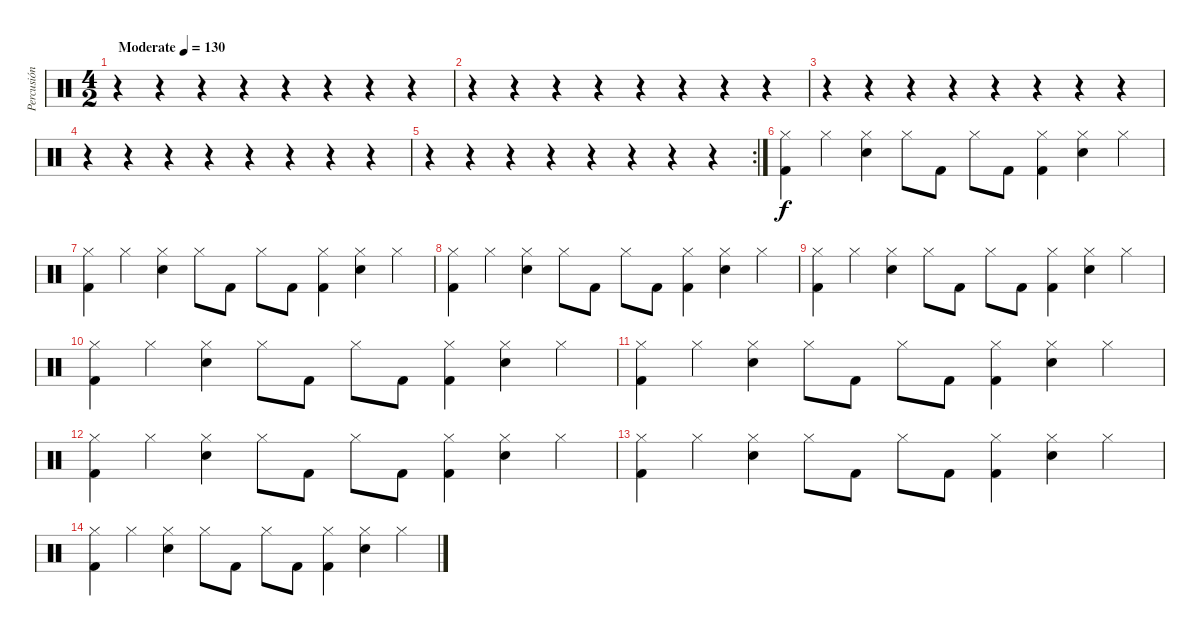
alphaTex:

\track ("Percusión" "Percusión") {instrument percussion}
\staff {score}
\articulation defaults
\ts (4 2)
\tempo (130 "Moderate")
\clef neutral
\ks c
r.4{dy f} r.4 r.4 r.4 r.4 r.4 r.4 r.4 |
r.4 r.4 r.4 r.4 r.4 r.4 r.4 r.4 |
r.4 r.4 r.4 r.4 r.4 r.4 r.4 r.4 |
r.4 r.4 r.4 r.4 r.4 r.4 r.4 r.4 |
\rc 2
r.4 r.4 r.4 r.4 r.4 r.4 r.4 r.4 |
("Hi-Hat (closed)" "Kick (hit) 2").4 "Hi-Hat (closed)".4 ("Hi-Hat (closed)" "Snare (hit) 2").4 "Hi-Hat (closed)".8 "Kick (hit) 2".8 "Hi-Hat (closed)".8 "Kick (hit) 2".8 ("Hi-Hat (closed)" "Kick (hit) 2").4 ("Hi-Hat (closed)" "Snare (hit) 2").4 "Hi-Hat (closed)".4 |
("Hi-Hat (closed)" "Kick (hit) 2").4 "Hi-Hat (closed)".4 ("Hi-Hat (closed)" "Snare (hit) 2").4 "Hi-Hat (closed)".8 "Kick (hit) 2".8 "Hi-Hat (closed)".8 "Kick (hit) 2".8 ("Hi-Hat (closed)" "Kick (hit) 2").4 ("Hi-Hat (closed)" "Snare (hit) 2").4 "Hi-Hat (closed)".4 |
("Hi-Hat (closed)" "Kick (hit) 2").4 "Hi-Hat (closed)".4 ("Hi-Hat (closed)" "Snare (hit) 2").4 "Hi-Hat (closed)".8 "Kick (hit) 2".8 "Hi-Hat (closed)".8 "Kick (hit) 2".8 ("Hi-Hat (closed)" "Kick (hit) 2").4 ("Hi-Hat (closed)" "Snare (hit) 2").4 "Hi-Hat (closed)".4 |
("Hi-Hat (closed)" "Kick (hit) 2").4 "Hi-Hat (closed)".4 ("Hi-Hat (closed)" "Snare (hit) 2").4 "Hi-Hat (closed)".8 "Kick (hit) 2".8 "Hi-Hat (closed)".8 "Kick (hit) 2".8 ("Hi-Hat (closed)" "Kick (hit) 2").4 ("Hi-Hat (closed)" "Snare (hit) 2").4 "Hi-Hat (closed)".4 |
("Hi-Hat (closed)" "Kick (hit) 2").4 "Hi-Hat (closed)".4 ("Hi-Hat (closed)" "Snare (hit) 2").4 "Hi-Hat (closed)".8 "Kick (hit) 2".8 "Hi-Hat (closed)".8 "Kick (hit) 2".8 ("Hi-Hat (closed)" "Kick (hit) 2").4 ("Hi-Hat (closed)" "Snare (hit) 2").4 "Hi-Hat (closed)".4 |
("Hi-Hat (closed)" "Kick (hit) 2").4 "Hi-Hat (closed)".4 ("Hi-Hat (closed)" "Snare (hit) 2").4 "Hi-Hat (closed)".8 "Kick (hit) 2".8 "Hi-Hat (closed)".8 "Kick (hit) 2".8 ("Hi-Hat (closed)" "Kick (hit) 2").4 ("Hi-Hat (closed)" "Snare (hit) 2").4 "Hi-Hat (closed)".4 |
("Hi-Hat (closed)" "Kick (hit) 2").4 "Hi-Hat (closed)".4 ("Hi-Hat (closed)" "Snare (hit) 2").4 "Hi-Hat (closed)".8 "Kick (hit) 2".8 "Hi-Hat (closed)".8 "Kick (hit) 2".8 ("Hi-Hat (closed)" "Kick (hit) 2").4 ("Hi-Hat (closed)" "Snare (hit) 2").4 "Hi-Hat (closed)".4 |
("Hi-Hat (closed)" "Kick (hit) 2").4 "Hi-Hat (closed)".4 ("Hi-Hat (closed)" "Snare (hit) 2").4 "Hi-Hat (closed)".8 "Kick (hit) 2".8 "Hi-Hat (closed)".8 "Kick (hit) 2".8 ("Hi-Hat (closed)" "Kick (hit) 2").4 ("Hi-Hat (closed)" "Snare (hit) 2").4 "Hi-Hat (closed)".4 |
("Hi-Hat (closed)" "Kick (hit) 2").4 "Hi-Hat (closed)".4 ("Hi-Hat (closed)" "Snare (hit) 2").4 "Hi-Hat (closed)".8 "Kick (hit) 2".8 "Hi-Hat (closed)".8 "Kick (hit) 2".8 ("Hi-Hat (closed)" "Kick (hit) 2").4 ("Hi-Hat (closed)" "Snare (hit) 2").4 "Hi-Hat (closed)".4
